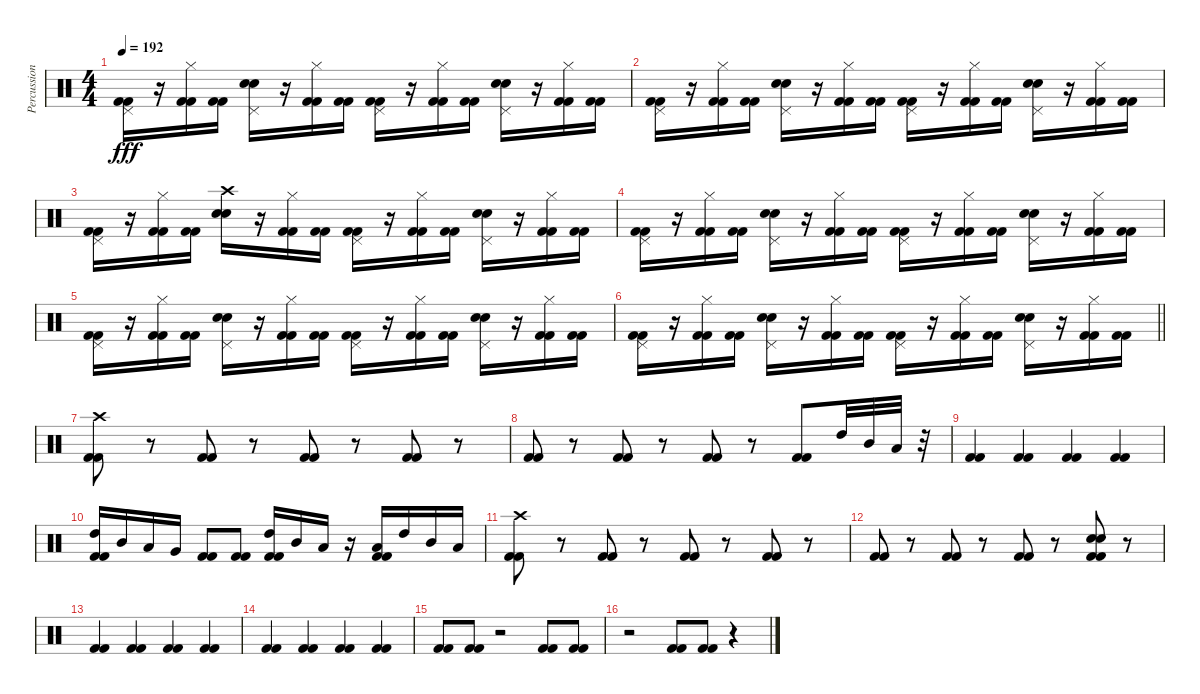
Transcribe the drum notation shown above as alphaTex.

\track ("Percussion" "Percussion") {instrument percussion}
\staff {score}
\articulation defaults
\ts (4 4)
\tempo 192
\clef neutral
\ks c
("Pedal Hi-Hat (hit)" "Kick (hit) 2" "Kick (hit) 2").16{dy fff} r.16 ("Hi-Hat (closed)" "Kick (hit) 2" "Kick (hit) 2").16 ("Kick (hit) 2" "Kick (hit) 2").16 ("Pedal Hi-Hat (hit)" "Snare (hit) 2" "Electric Snare (hit)").16 r.16 ("Hi-Hat (closed)" "Kick (hit) 2" "Kick (hit) 2").16 ("Kick (hit) 2" "Kick (hit) 2").16 ("Pedal Hi-Hat (hit)" "Kick (hit) 2" "Kick (hit) 2").16 r.16 ("Hi-Hat (closed)" "Kick (hit) 2" "Kick (hit) 2").16 ("Kick (hit) 2" "Kick (hit) 2").16 ("Pedal Hi-Hat (hit)" "Snare (hit) 2" "Electric Snare (hit)").16 r.16 ("Hi-Hat (closed)" "Kick (hit) 2" "Kick (hit) 2").16 ("Kick (hit) 2" "Kick (hit) 2").16 |
("Pedal Hi-Hat (hit)" "Kick (hit) 2" "Kick (hit) 2").16 r.16 ("Hi-Hat (closed)" "Kick (hit) 2" "Kick (hit) 2").16 ("Kick (hit) 2" "Kick (hit) 2").16 ("Pedal Hi-Hat (hit)" "Snare (hit) 2" "Electric Snare (hit)").16 r.16 ("Hi-Hat (closed)" "Kick (hit) 2" "Kick (hit) 2").16 ("Kick (hit) 2" "Kick (hit) 2").16 ("Pedal Hi-Hat (hit)" "Kick (hit) 2" "Kick (hit) 2").16 r.16 ("Hi-Hat (closed)" "Kick (hit) 2" "Kick (hit) 2").16 ("Kick (hit) 2" "Kick (hit) 2").16 ("Pedal Hi-Hat (hit)" "Snare (hit) 2" "Electric Snare (hit)").16 r.16 ("Hi-Hat (closed)" "Kick (hit) 2" "Kick (hit) 2").16 ("Kick (hit) 2" "Kick (hit) 2").16 |
("Pedal Hi-Hat (hit)" "Kick (hit) 2" "Kick (hit) 2").16 r.16 ("Hi-Hat (closed)" "Kick (hit) 2" "Kick (hit) 2").16 ("Kick (hit) 2" "Kick (hit) 2").16 ("Crash high (hit)" "Snare (hit) 2" "Electric Snare (hit)").16 r.16 ("Hi-Hat (closed)" "Kick (hit) 2" "Kick (hit) 2").16 ("Kick (hit) 2" "Kick (hit) 2").16 ("Pedal Hi-Hat (hit)" "Kick (hit) 2" "Kick (hit) 2").16 r.16 ("Hi-Hat (closed)" "Kick (hit) 2" "Kick (hit) 2").16 ("Kick (hit) 2" "Kick (hit) 2").16 ("Pedal Hi-Hat (hit)" "Snare (hit) 2" "Electric Snare (hit)").16 r.16 ("Hi-Hat (closed)" "Kick (hit) 2" "Kick (hit) 2").16 ("Kick (hit) 2" "Kick (hit) 2").16 |
("Pedal Hi-Hat (hit)" "Kick (hit) 2" "Kick (hit) 2").16 r.16 ("Hi-Hat (closed)" "Kick (hit) 2" "Kick (hit) 2").16 ("Kick (hit) 2" "Kick (hit) 2").16 ("Pedal Hi-Hat (hit)" "Snare (hit) 2" "Electric Snare (hit)").16 r.16 ("Hi-Hat (closed)" "Kick (hit) 2" "Kick (hit) 2").16 ("Kick (hit) 2" "Kick (hit) 2").16 ("Pedal Hi-Hat (hit)" "Kick (hit) 2" "Kick (hit) 2").16 r.16 ("Hi-Hat (closed)" "Kick (hit) 2" "Kick (hit) 2").16 ("Kick (hit) 2" "Kick (hit) 2").16 ("Pedal Hi-Hat (hit)" "Snare (hit) 2" "Electric Snare (hit)").16 r.16 ("Hi-Hat (closed)" "Kick (hit) 2" "Kick (hit) 2").16 ("Kick (hit) 2" "Kick (hit) 2").16 |
("Pedal Hi-Hat (hit)" "Kick (hit) 2" "Kick (hit) 2").16 r.16 ("Hi-Hat (closed)" "Kick (hit) 2" "Kick (hit) 2").16 ("Kick (hit) 2" "Kick (hit) 2").16 ("Pedal Hi-Hat (hit)" "Snare (hit) 2" "Electric Snare (hit)").16 r.16 ("Hi-Hat (closed)" "Kick (hit) 2" "Kick (hit) 2").16 ("Kick (hit) 2" "Kick (hit) 2").16 ("Pedal Hi-Hat (hit)" "Kick (hit) 2" "Kick (hit) 2").16 r.16 ("Hi-Hat (closed)" "Kick (hit) 2" "Kick (hit) 2").16 ("Kick (hit) 2" "Kick (hit) 2").16 ("Pedal Hi-Hat (hit)" "Snare (hit) 2" "Electric Snare (hit)").16 r.16 ("Hi-Hat (closed)" "Kick (hit) 2" "Kick (hit) 2").16 ("Kick (hit) 2" "Kick (hit) 2").16 |
\barLineRight lightlight
("Pedal Hi-Hat (hit)" "Kick (hit) 2" "Kick (hit) 2").16 r.16 ("Hi-Hat (closed)" "Kick (hit) 2" "Kick (hit) 2").16 ("Kick (hit) 2" "Kick (hit) 2").16 ("Pedal Hi-Hat (hit)" "Snare (hit) 2" "Electric Snare (hit)").16 r.16 ("Hi-Hat (closed)" "Kick (hit) 2" "Kick (hit) 2").16 ("Kick (hit) 2" "Kick (hit) 2").16 ("Pedal Hi-Hat (hit)" "Kick (hit) 2" "Kick (hit) 2").16 r.16 ("Hi-Hat (closed)" "Kick (hit) 2" "Kick (hit) 2").16 ("Kick (hit) 2" "Kick (hit) 2").16 ("Pedal Hi-Hat (hit)" "Snare (hit) 2" "Electric Snare (hit)").16 r.16 ("Hi-Hat (closed)" "Kick (hit) 2" "Kick (hit) 2").16 ("Kick (hit) 2" "Kick (hit) 2").16 |
("Crash high (hit)" "Kick (hit) 2" "Kick (hit) 2").8 r.8 ("Kick (hit) 2" "Kick (hit) 2").8 r.8 ("Kick (hit) 2" "Kick (hit) 2").8 r.8 ("Kick (hit) 2" "Kick (hit) 2").8 r.8 |
("Kick (hit) 2" "Kick (hit) 2").8 r.8 ("Kick (hit) 2" "Kick (hit) 2").8 r.8 ("Kick (hit) 2" "Kick (hit) 2").8 r.8 ("Kick (hit) 2" "Kick (hit) 2").8 "High Tom (hit)".32 "Mid Tom (hit)".32 "Low Tom (hit)".32 r.32 |
("Kick (hit) 2" "Kick (hit) 2").4 ("Kick (hit) 2" "Kick (hit) 2").4 ("Kick (hit) 2" "Kick (hit) 2").4 ("Kick (hit) 2" "Kick (hit) 2").4 |
("High Tom (hit)" "Kick (hit) 2" "Kick (hit) 2").16 "Mid Tom (hit)".16 "Low Tom (hit)".16 "Very Low Tom (hit)".16 ("Kick (hit) 2" "Kick (hit) 2").8 ("Kick (hit) 2" "Kick (hit) 2").8 ("High Tom (hit)" "Kick (hit) 2" "Kick (hit) 2").16 "Mid Tom (hit)".16 "Low Tom (hit)".16 r.16 ("Low Floor Tom (hit)" "Kick (hit) 2" "Kick (hit) 2").16 "High Tom (hit)".16 "Mid Tom (hit)".16 "Low Tom (hit)".16 |
("Crash high (hit)" "Kick (hit) 2" "Kick (hit) 2").8 r.8 ("Kick (hit) 2" "Kick (hit) 2").8 r.8 ("Kick (hit) 2" "Kick (hit) 2").8 r.8 ("Kick (hit) 2" "Kick (hit) 2").8 r.8 |
("Kick (hit) 2" "Kick (hit) 2").8 r.8 ("Kick (hit) 2" "Kick (hit) 2").8 r.8 ("Kick (hit) 2" "Kick (hit) 2").8 r.8 ("Snare (hit) 2" "Electric Snare (hit)" "Kick (hit) 2" "Kick (hit) 2").8 r.8 |
("Kick (hit) 2" "Kick (hit) 2").4 ("Kick (hit) 2" "Kick (hit) 2").4 ("Kick (hit) 2" "Kick (hit) 2").4 ("Kick (hit) 2" "Kick (hit) 2").4 |
("Kick (hit) 2" "Kick (hit) 2").4 ("Kick (hit) 2" "Kick (hit) 2").4 ("Kick (hit) 2" "Kick (hit) 2").4 ("Kick (hit) 2" "Kick (hit) 2").4 |
("Kick (hit) 2" "Kick (hit) 2").8 ("Kick (hit) 2" "Kick (hit) 2").8 r.2 ("Kick (hit) 2" "Kick (hit) 2").8 ("Kick (hit) 2" "Kick (hit) 2").8 |
r.2 ("Kick (hit) 2" "Kick (hit) 2").8 ("Kick (hit) 2" "Kick (hit) 2").8 r.4
